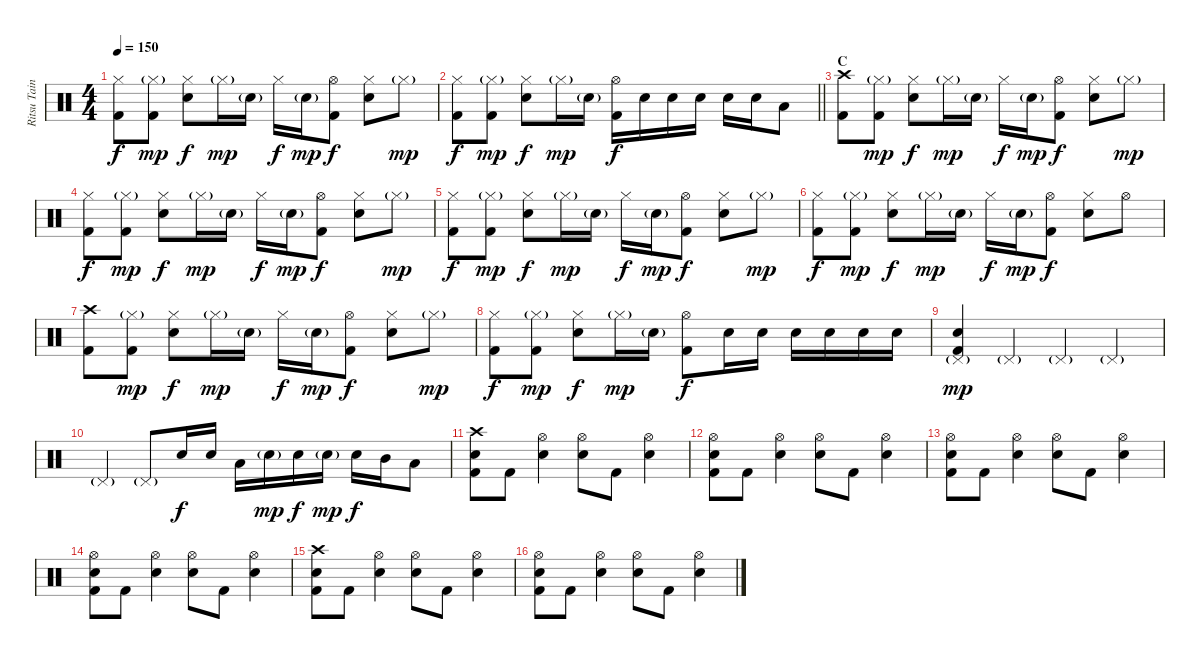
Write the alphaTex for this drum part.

\track ("Ritsu Tainaka" "Ritsu Tain") {instrument percussion}
\staff {score}
\articulation defaults
\ts (4 4)
\tempo 150
\clef neutral
\ks c
("Hi-Hat (closed)" "Kick (hit) 2").8{dy f} ("Hi-Hat (closed)"{g} "Kick (hit) 2").8{dy mp} ("Hi-Hat (closed)" "Electric Snare (hit)").8{dy f} "Hi-Hat (closed)"{g}.16{dy mp} "Electric Snare (hit)"{g}.16 "Hi-Hat (closed)".16{dy f} "Electric Snare (hit)"{g}.16{dy mp} ("Hi-Hat (open)" "Kick (hit) 2").8{dy f} ("Hi-Hat (closed)" "Electric Snare (hit)").8 "Hi-Hat (closed)"{g}.8{dy mp} |
\barLineRight lightlight
("Hi-Hat (closed)" "Kick (hit) 2").8{dy f} ("Hi-Hat (closed)"{g} "Kick (hit) 2").8{dy mp} ("Hi-Hat (closed)" "Electric Snare (hit)").8{dy f} "Hi-Hat (closed)"{g}.16{dy mp} "Electric Snare (hit)"{g}.16 ("Hi-Hat (open)" "Kick (hit) 2").16{dy f} "Electric Snare (hit)".16 "Electric Snare (hit)".16 "Electric Snare (hit)".16 "Electric Snare (hit)".16 "Electric Snare (hit)".16 "Low Tom (hit)".8 |
\section ("" "C")
("Crash high (hit)" "Kick (hit) 2").8 ("Hi-Hat (closed)"{g} "Kick (hit) 2").8{dy mp} ("Hi-Hat (closed)" "Electric Snare (hit)").8{dy f} "Hi-Hat (closed)"{g}.16{dy mp} "Electric Snare (hit)"{g}.16 "Hi-Hat (closed)".16{dy f} "Electric Snare (hit)"{g}.16{dy mp} ("Hi-Hat (open)" "Kick (hit) 2").8{dy f} ("Hi-Hat (closed)" "Electric Snare (hit)").8 "Hi-Hat (closed)"{g}.8{dy mp} |
("Hi-Hat (closed)" "Kick (hit) 2").8{dy f} ("Hi-Hat (closed)"{g} "Kick (hit) 2").8{dy mp} ("Hi-Hat (closed)" "Electric Snare (hit)").8{dy f} "Hi-Hat (closed)"{g}.16{dy mp} "Electric Snare (hit)"{g}.16 "Hi-Hat (closed)".16{dy f} "Electric Snare (hit)"{g}.16{dy mp} ("Hi-Hat (open)" "Kick (hit) 2").8{dy f} ("Hi-Hat (closed)" "Electric Snare (hit)").8 "Hi-Hat (closed)"{g}.8{dy mp} |
("Hi-Hat (closed)" "Kick (hit) 2").8{dy f} ("Hi-Hat (closed)"{g} "Kick (hit) 2").8{dy mp} ("Hi-Hat (closed)" "Electric Snare (hit)").8{dy f} "Hi-Hat (closed)"{g}.16{dy mp} "Electric Snare (hit)"{g}.16 "Hi-Hat (closed)".16{dy f} "Electric Snare (hit)"{g}.16{dy mp} ("Hi-Hat (open)" "Kick (hit) 2").8{dy f} ("Hi-Hat (closed)" "Electric Snare (hit)").8 "Hi-Hat (closed)"{g}.8{dy mp} |
("Hi-Hat (closed)" "Kick (hit) 2").8{dy f} ("Hi-Hat (closed)"{g} "Kick (hit) 2").8{dy mp} ("Hi-Hat (closed)" "Electric Snare (hit)").8{dy f} "Hi-Hat (closed)"{g}.16{dy mp} "Electric Snare (hit)"{g}.16 "Hi-Hat (closed)".16{dy f} "Electric Snare (hit)"{g}.16{dy mp} ("Hi-Hat (open)" "Kick (hit) 2").8{dy f} ("Hi-Hat (closed)" "Electric Snare (hit)").8 "Hi-Hat (open)".8 |
("Crash high (hit)" "Kick (hit) 2").8 ("Hi-Hat (closed)"{g} "Kick (hit) 2").8{dy mp} ("Hi-Hat (closed)" "Electric Snare (hit)").8{dy f} "Hi-Hat (closed)"{g}.16{dy mp} "Electric Snare (hit)"{g}.16 "Hi-Hat (closed)".16{dy f} "Electric Snare (hit)"{g}.16{dy mp} ("Hi-Hat (open)" "Kick (hit) 2").8{dy f} ("Hi-Hat (closed)" "Electric Snare (hit)").8 "Hi-Hat (closed)"{g}.8{dy mp} |
("Hi-Hat (closed)" "Kick (hit) 2").8{dy f} ("Hi-Hat (closed)"{g} "Kick (hit) 2").8{dy mp} ("Hi-Hat (closed)" "Electric Snare (hit)").8{dy f} "Hi-Hat (closed)"{g}.16{dy mp} "Electric Snare (hit)"{g}.16 ("Hi-Hat (open)" "Kick (hit) 2").8{dy f} "Electric Snare (hit)".16 "Electric Snare (hit)".16 "Electric Snare (hit)".16 "Electric Snare (hit)".16 "Electric Snare (hit)".16 "Electric Snare (hit)".16 |
("Pedal Hi-Hat (hit)"{g} "Electric Snare (hit)" "Kick (hit) 2").4{dy mp} "Pedal Hi-Hat (hit)"{g}.4 "Pedal Hi-Hat (hit)"{g}.4 "Pedal Hi-Hat (hit)"{g}.4 |
"Pedal Hi-Hat (hit)"{g}.4 "Pedal Hi-Hat (hit)"{g}.8 "Electric Snare (hit)".16{dy f} "Electric Snare (hit)".16 "Low Tom (hit)".16 "Electric Snare (hit)"{g}.16{dy mp} "Electric Snare (hit)".16{dy f} "Electric Snare (hit)"{g}.16{dy mp} "Electric Snare (hit)".16{dy f} "Mid Tom (hit)".16 "Low Tom (hit)".8 |
("Crash high (hit)" "Electric Snare (hit)" "Kick (hit) 2").8 "Kick (hit) 2".8 ("Hi-Hat (open)" "Electric Snare (hit)").4 ("Hi-Hat (open)" "Electric Snare (hit)").8 "Kick (hit) 2".8 ("Hi-Hat (open)" "Electric Snare (hit)").4 |
("Hi-Hat (open)" "Electric Snare (hit)" "Kick (hit) 2").8 "Kick (hit) 2".8 ("Hi-Hat (open)" "Electric Snare (hit)").4 ("Hi-Hat (open)" "Electric Snare (hit)").8 "Kick (hit) 2".8 ("Hi-Hat (open)" "Electric Snare (hit)").4 |
("Hi-Hat (open)" "Electric Snare (hit)" "Kick (hit) 2").8 "Kick (hit) 2".8 ("Hi-Hat (open)" "Electric Snare (hit)").4 ("Hi-Hat (open)" "Electric Snare (hit)").8 "Kick (hit) 2".8 ("Hi-Hat (open)" "Electric Snare (hit)").4 |
("Hi-Hat (open)" "Electric Snare (hit)" "Kick (hit) 2").8 "Kick (hit) 2".8 ("Hi-Hat (open)" "Electric Snare (hit)").4 ("Hi-Hat (open)" "Electric Snare (hit)").8 "Kick (hit) 2".8 ("Hi-Hat (open)" "Electric Snare (hit)").4 |
("Crash high (hit)" "Electric Snare (hit)" "Kick (hit) 2").8 "Kick (hit) 2".8 ("Hi-Hat (open)" "Electric Snare (hit)").4 ("Hi-Hat (open)" "Electric Snare (hit)").8 "Kick (hit) 2".8 ("Hi-Hat (open)" "Electric Snare (hit)").4 |
("Hi-Hat (open)" "Electric Snare (hit)" "Kick (hit) 2").8 "Kick (hit) 2".8 ("Hi-Hat (open)" "Electric Snare (hit)").4 ("Hi-Hat (open)" "Electric Snare (hit)").8 "Kick (hit) 2".8 ("Hi-Hat (open)" "Electric Snare (hit)").4
